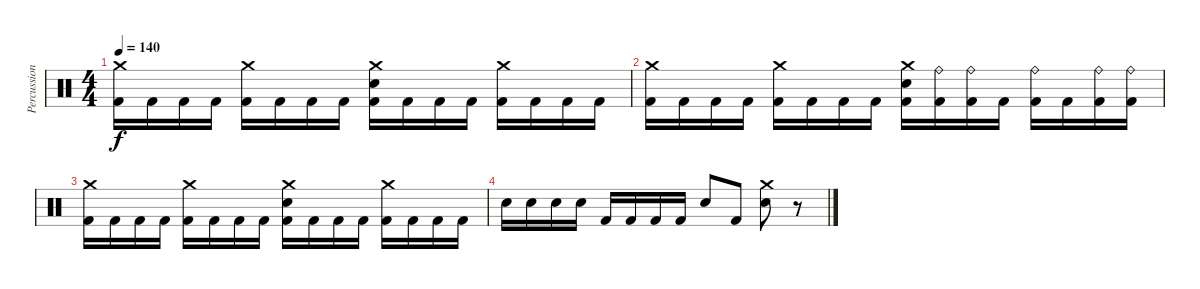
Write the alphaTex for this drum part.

\track ("Percussion" "Percussion") {instrument percussion}
\staff {score}
\articulation defaults
\ts (4 4)
\tempo 140
\clef neutral
\ks c
("Crash medium (hit)" "Kick (hit) 2").16{dy f} "Kick (hit) 2".16 "Kick (hit) 2".16 "Kick (hit) 2".16 ("Crash medium (hit)" "Kick (hit) 2").16 "Kick (hit) 2".16 "Kick (hit) 2".16 "Kick (hit) 2".16 ("Crash medium (hit)" "Electric Snare (hit)" "Kick (hit) 2").16 "Kick (hit) 2".16 "Kick (hit) 2".16 "Kick (hit) 2".16 ("Crash medium (hit)" "Kick (hit) 2").16 "Kick (hit) 2".16 "Kick (hit) 2".16 "Kick (hit) 2".16 |
("Crash medium (hit)" "Kick (hit) 2").16 "Kick (hit) 2".16 "Kick (hit) 2".16 "Kick (hit) 2".16 ("Crash medium (hit)" "Kick (hit) 2").16 "Kick (hit) 2".16 "Kick (hit) 2".16 "Kick (hit) 2".16 ("Crash medium (hit)" "Electric Snare (hit)" "Kick (hit) 2").16 ("Ride (bell)" "Kick (hit) 2").16 ("Ride (bell)" "Kick (hit) 2").16 "Kick (hit) 2".16 ("Ride (bell)" "Kick (hit) 2").16 "Kick (hit) 2".16 ("Ride (bell)" "Kick (hit) 2").16 ("Ride (bell)" "Kick (hit) 2").16 |
("Crash medium (hit)" "Kick (hit) 2").16 "Kick (hit) 2".16 "Kick (hit) 2".16 "Kick (hit) 2".16 ("Crash medium (hit)" "Kick (hit) 2").16 "Kick (hit) 2".16 "Kick (hit) 2".16 "Kick (hit) 2".16 ("Crash medium (hit)" "Electric Snare (hit)" "Kick (hit) 2").16 "Kick (hit) 2".16 "Kick (hit) 2".16 "Kick (hit) 2".16 ("Crash medium (hit)" "Kick (hit) 2").16 "Kick (hit) 2".16 "Kick (hit) 2".16 "Kick (hit) 2".16 |
"Electric Snare (hit)".16 "Electric Snare (hit)".16 "Electric Snare (hit)".16 "Electric Snare (hit)".16 "Kick (hit) 2".16 "Kick (hit) 2".16 "Kick (hit) 2".16 "Kick (hit) 2".16 "Electric Snare (hit)".8 "Kick (hit) 2".8 ("Crash medium (hit)" "Electric Snare (hit)").8 r.8
